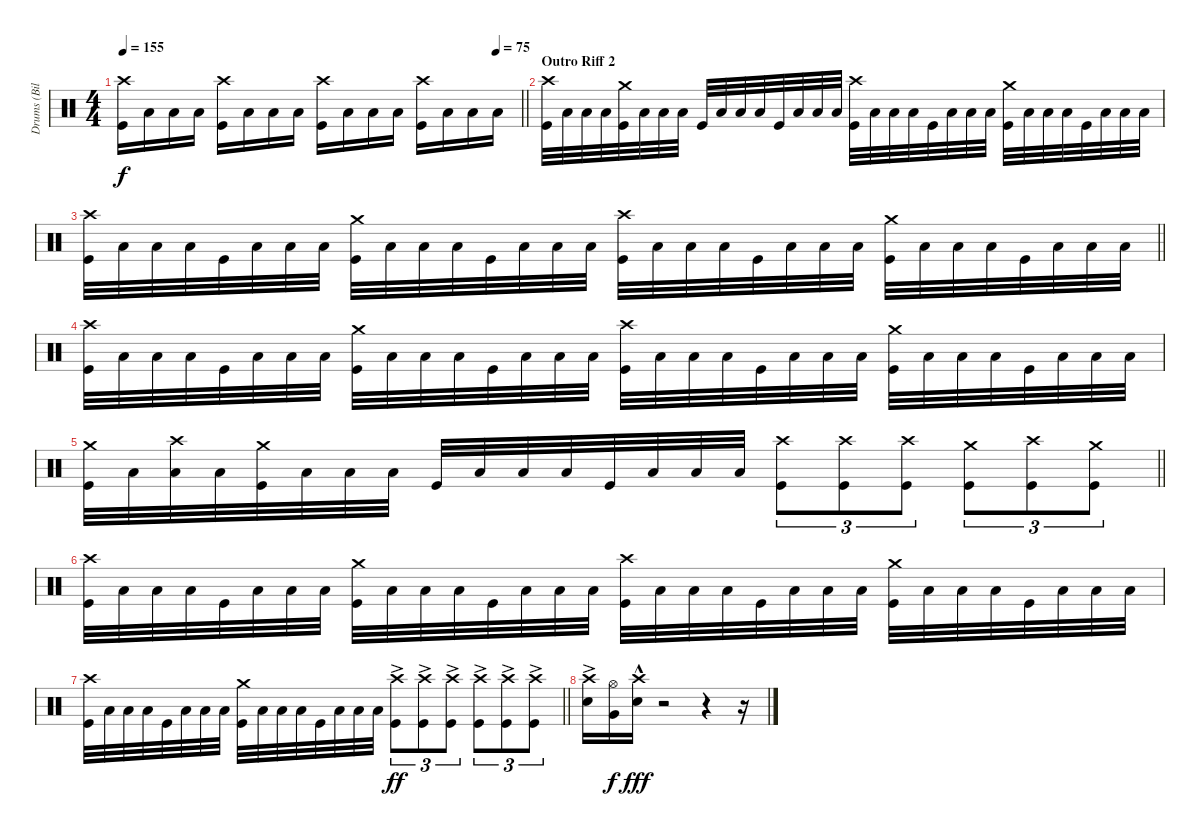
\track ("Drums (Bill Ward)" "Drums (Bil") {instrument percussion}
\staff {score}
\articulation defaults
\ts (4 4)
\tempo 155
\tempo (75 0.9375)
\clef neutral
\barLineRight lightlight
\ks c
("Crash high (hit)" "Kick (hit)").16{dy f} "Low Tom (hit)".16 "Low Tom (hit)".16 "Low Tom (hit)".16 ("Crash high (hit)" "Kick (hit)").16 "Low Tom (hit)".16 "Low Tom (hit)".16 "Low Tom (hit)".16 ("Crash high (hit)" "Kick (hit)").16 "Low Tom (hit)".16 "Low Tom (hit)".16 "Low Tom (hit)".16 ("Crash high (hit)" "Kick (hit)").16 "Low Tom (hit)".16 "Low Tom (hit)".16 "Low Tom (hit)".16 |
\section ("" "Outro Riff 2")
("Crash high (hit)" "Kick (hit)").32 "Low Tom (hit)".32 "Low Tom (hit)".32 "Low Tom (hit)".32 ("Crash medium (hit)" "Kick (hit)").32 "Low Tom (hit)".32 "Low Tom (hit)".32 "Low Tom (hit)".32 "Kick (hit)".32 "Low Tom (hit)".32 "Low Tom (hit)".32 "Low Tom (hit)".32 "Kick (hit)".32 "Low Tom (hit)".32 "Low Tom (hit)".32 "Low Tom (hit)".32 ("Crash high (hit)" "Kick (hit)").32 "Low Tom (hit)".32 "Low Tom (hit)".32 "Low Tom (hit)".32 "Kick (hit)".32 "Low Tom (hit)".32 "Low Tom (hit)".32 "Low Tom (hit)".32 ("Crash medium (hit)" "Kick (hit)").32 "Low Tom (hit)".32 "Low Tom (hit)".32 "Low Tom (hit)".32 "Kick (hit)".32 "Low Tom (hit)".32 "Low Tom (hit)".32 "Low Tom (hit)".32 |
\barLineRight lightlight
("Crash high (hit)" "Kick (hit)").32 "Low Tom (hit)".32 "Low Tom (hit)".32 "Low Tom (hit)".32 "Kick (hit)".32 "Low Tom (hit)".32 "Low Tom (hit)".32 "Low Tom (hit)".32 ("Crash medium (hit)" "Kick (hit)").32 "Low Tom (hit)".32 "Low Tom (hit)".32 "Low Tom (hit)".32 "Kick (hit)".32 "Low Tom (hit)".32 "Low Tom (hit)".32 "Low Tom (hit)".32 ("Crash high (hit)" "Kick (hit)").32 "Low Tom (hit)".32 "Low Tom (hit)".32 "Low Tom (hit)".32 "Kick (hit)".32 "Low Tom (hit)".32 "Low Tom (hit)".32 "Low Tom (hit)".32 ("Crash medium (hit)" "Kick (hit)").32 "Low Tom (hit)".32 "Low Tom (hit)".32 "Low Tom (hit)".32 "Kick (hit)".32 "Low Tom (hit)".32 "Low Tom (hit)".32 "Low Tom (hit)".32 |
("Crash high (hit)" "Kick (hit)").32 "Low Tom (hit)".32 "Low Tom (hit)".32 "Low Tom (hit)".32 "Kick (hit)".32 "Low Tom (hit)".32 "Low Tom (hit)".32 "Low Tom (hit)".32 ("Crash medium (hit)" "Kick (hit)").32 "Low Tom (hit)".32 "Low Tom (hit)".32 "Low Tom (hit)".32 "Kick (hit)".32 "Low Tom (hit)".32 "Low Tom (hit)".32 "Low Tom (hit)".32 ("Crash high (hit)" "Kick (hit)").32 "Low Tom (hit)".32 "Low Tom (hit)".32 "Low Tom (hit)".32 "Kick (hit)".32 "Low Tom (hit)".32 "Low Tom (hit)".32 "Low Tom (hit)".32 ("Crash medium (hit)" "Kick (hit)").32 "Low Tom (hit)".32 "Low Tom (hit)".32 "Low Tom (hit)".32 "Kick (hit)".32 "Low Tom (hit)".32 "Low Tom (hit)".32 "Low Tom (hit)".32 |
\barLineRight lightlight
("Crash medium (hit)" "Kick (hit)").32 "Low Tom (hit)".32 ("Crash high (hit)" "Low Tom (hit)").32 "Low Tom (hit)".32 ("Crash medium (hit)" "Kick (hit)").32 "Low Tom (hit)".32 "Low Tom (hit)".32 "Low Tom (hit)".32 "Kick (hit)".32 "Low Tom (hit)".32 "Low Tom (hit)".32 "Low Tom (hit)".32 "Kick (hit)".32 "Low Tom (hit)".32 "Low Tom (hit)".32 "Low Tom (hit)".32 ("Crash high (hit)" "Kick (hit)").8{tu (3 2)} ("Crash high (hit)" "Kick (hit)").8{tu (3 2)} ("Crash high (hit)" "Kick (hit)").8{tu (3 2)} ("Crash medium (hit)" "Kick (hit)").8{tu (3 2)} ("Crash high (hit)" "Kick (hit)").8{tu (3 2)} ("Crash medium (hit)" "Kick (hit)").8{tu (3 2)} |
("Crash high (hit)" "Kick (hit)").32 "Low Tom (hit)".32 "Low Tom (hit)".32 "Low Tom (hit)".32 "Kick (hit)".32 "Low Tom (hit)".32 "Low Tom (hit)".32 "Low Tom (hit)".32 ("Crash medium (hit)" "Kick (hit)").32 "Low Tom (hit)".32 "Low Tom (hit)".32 "Low Tom (hit)".32 "Kick (hit)".32 "Low Tom (hit)".32 "Low Tom (hit)".32 "Low Tom (hit)".32 ("Crash high (hit)" "Kick (hit)").32 "Low Tom (hit)".32 "Low Tom (hit)".32 "Low Tom (hit)".32 "Kick (hit)".32 "Low Tom (hit)".32 "Low Tom (hit)".32 "Low Tom (hit)".32 ("Crash medium (hit)" "Kick (hit)").32 "Low Tom (hit)".32 "Low Tom (hit)".32 "Low Tom (hit)".32 "Kick (hit)".32 "Low Tom (hit)".32 "Low Tom (hit)".32 "Low Tom (hit)".32 |
\barLineRight lightlight
("Crash high (hit)" "Kick (hit)").32 "Low Tom (hit)".32 "Low Tom (hit)".32 "Low Tom (hit)".32 "Kick (hit)".32 "Low Tom (hit)".32 "Low Tom (hit)".32 "Low Tom (hit)".32 ("Crash medium (hit)" "Kick (hit)").32 "Low Tom (hit)".32 "Low Tom (hit)".32 "Low Tom (hit)".32 "Kick (hit)".32 "Low Tom (hit)".32 "Low Tom (hit)".32 "Low Tom (hit)".32 ("Crash high (hit)"{ac} "Kick (hit)"{ac}).8{tu (3 2) dy ff} ("Crash high (hit)"{ac} "Kick (hit)"{ac}).8{tu (3 2)} ("Crash high (hit)"{ac} "Kick (hit)"{ac}).8{tu (3 2)} ("Crash high (hit)"{ac} "Kick (hit)"{ac}).8{tu (3 2)} ("Crash high (hit)"{ac} "Kick (hit)"{ac}).8{tu (3 2)} ("Crash high (hit)"{ac} "Kick (hit)"{ac}).8{tu (3 2)} |
("Crash high (hit)" "Electric Snare (hit)"{ac}).16 ("Hi-Hat (open)" "Very Low Tom (hit)").16{dy f} ("Crash high (hit)" "Electric Snare (hit)"{hac}).16{dy fff} r.2 r.4 r.16
